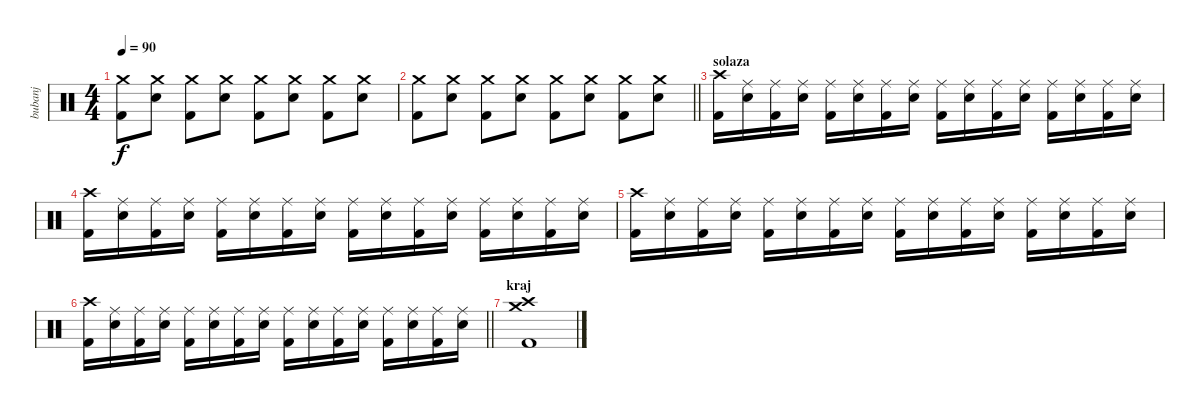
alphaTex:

\track ("bubanj" "bubanj") {instrument percussion}
\staff {score}
\articulation defaults
\ts (4 4)
\tempo 90
\clef neutral
\ks c
("Crash medium (hit)" "Kick (hit) 2").8{dy f} ("Crash medium (hit)" "Electric Snare (hit)").8 ("Crash medium (hit)" "Kick (hit) 2").8 ("Crash medium (hit)" "Electric Snare (hit)").8 ("Crash medium (hit)" "Kick (hit) 2").8 ("Crash medium (hit)" "Electric Snare (hit)").8 ("Crash medium (hit)" "Kick (hit) 2").8 ("Crash medium (hit)" "Electric Snare (hit)").8 |
\barLineRight lightlight
("Crash medium (hit)" "Kick (hit) 2").8 ("Crash medium (hit)" "Electric Snare (hit)").8 ("Crash medium (hit)" "Kick (hit) 2").8 ("Crash medium (hit)" "Electric Snare (hit)").8 ("Crash medium (hit)" "Kick (hit) 2").8 ("Crash medium (hit)" "Electric Snare (hit)").8 ("Crash medium (hit)" "Kick (hit) 2").8 ("Crash medium (hit)" "Electric Snare (hit)").8 |
\section ("" "solaza")
("Crash high (hit)" "Kick (hit) 2").16 ("Ride (middle)" "Electric Snare (hit)").16 ("Ride (middle)" "Kick (hit) 2").16 ("Ride (middle)" "Electric Snare (hit)").16 ("Ride (middle)" "Kick (hit) 2").16 ("Ride (middle)" "Electric Snare (hit)").16 ("Ride (middle)" "Kick (hit) 2").16 ("Ride (middle)" "Electric Snare (hit)").16 ("Ride (middle)" "Kick (hit) 2").16 ("Ride (middle)" "Electric Snare (hit)").16 ("Ride (middle)" "Kick (hit) 2").16 ("Ride (middle)" "Electric Snare (hit)").16 ("Ride (middle)" "Kick (hit) 2").16 ("Ride (middle)" "Electric Snare (hit)").16 ("Ride (middle)" "Kick (hit) 2").16 ("Ride (middle)" "Electric Snare (hit)").16 |
("Crash high (hit)" "Kick (hit) 2").16 ("Ride (middle)" "Electric Snare (hit)").16 ("Ride (middle)" "Kick (hit) 2").16 ("Ride (middle)" "Electric Snare (hit)").16 ("Ride (middle)" "Kick (hit) 2").16 ("Ride (middle)" "Electric Snare (hit)").16 ("Ride (middle)" "Kick (hit) 2").16 ("Ride (middle)" "Electric Snare (hit)").16 ("Ride (middle)" "Kick (hit) 2").16 ("Ride (middle)" "Electric Snare (hit)").16 ("Ride (middle)" "Kick (hit) 2").16 ("Ride (middle)" "Electric Snare (hit)").16 ("Ride (middle)" "Kick (hit) 2").16 ("Ride (middle)" "Electric Snare (hit)").16 ("Ride (middle)" "Kick (hit) 2").16 ("Ride (middle)" "Electric Snare (hit)").16 |
("Crash high (hit)" "Kick (hit) 2").16 ("Ride (middle)" "Electric Snare (hit)").16 ("Ride (middle)" "Kick (hit) 2").16 ("Ride (middle)" "Electric Snare (hit)").16 ("Ride (middle)" "Kick (hit) 2").16 ("Ride (middle)" "Electric Snare (hit)").16 ("Ride (middle)" "Kick (hit) 2").16 ("Ride (middle)" "Electric Snare (hit)").16 ("Ride (middle)" "Kick (hit) 2").16 ("Ride (middle)" "Electric Snare (hit)").16 ("Ride (middle)" "Kick (hit) 2").16 ("Ride (middle)" "Electric Snare (hit)").16 ("Ride (middle)" "Kick (hit) 2").16 ("Ride (middle)" "Electric Snare (hit)").16 ("Ride (middle)" "Kick (hit) 2").16 ("Ride (middle)" "Electric Snare (hit)").16 |
\barLineRight lightlight
("Crash high (hit)" "Kick (hit) 2").16 ("Ride (middle)" "Electric Snare (hit)").16 ("Ride (middle)" "Kick (hit) 2").16 ("Ride (middle)" "Electric Snare (hit)").16 ("Ride (middle)" "Kick (hit) 2").16 ("Ride (middle)" "Electric Snare (hit)").16 ("Ride (middle)" "Kick (hit) 2").16 ("Ride (middle)" "Electric Snare (hit)").16 ("Ride (middle)" "Kick (hit) 2").16 ("Ride (middle)" "Electric Snare (hit)").16 ("Ride (middle)" "Kick (hit) 2").16 ("Ride (middle)" "Electric Snare (hit)").16 ("Ride (middle)" "Kick (hit) 2").16 ("Ride (middle)" "Electric Snare (hit)").16 ("Ride (middle)" "Kick (hit) 2").16 ("Ride (middle)" "Electric Snare (hit)").16 |
\section ("" "kraj")
("Crash medium (hit)" "Crash high (hit)" "Kick (hit) 2").1
